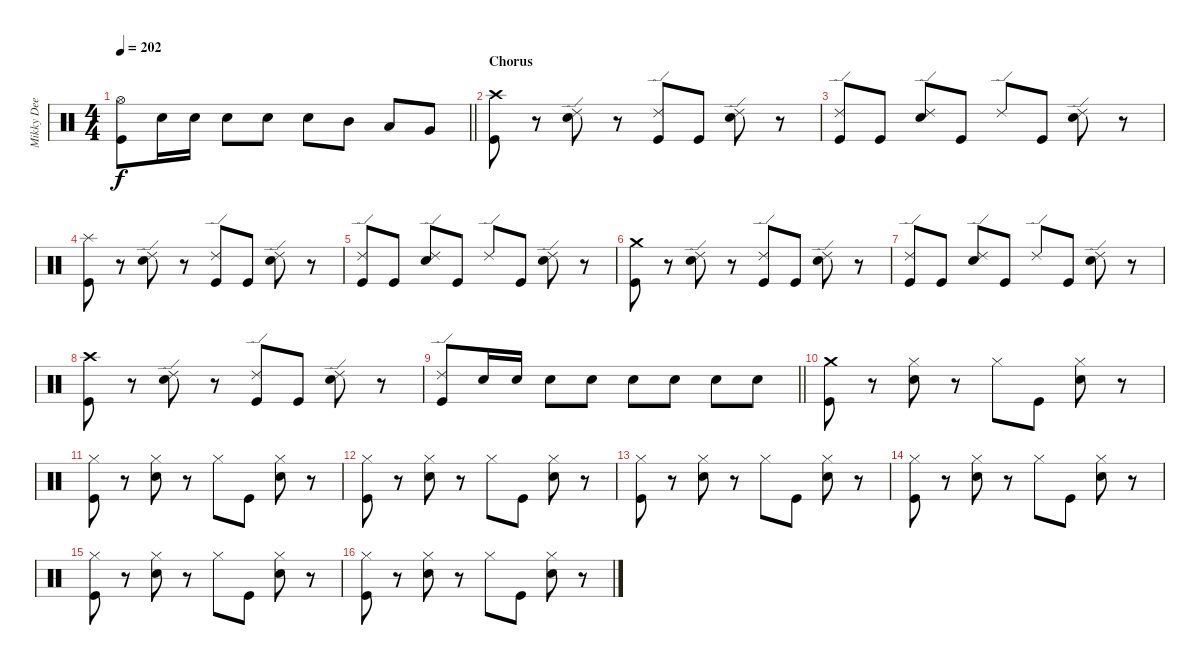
\track ("Mikky Dee" "Mikky Dee") {instrument percussion}
\staff {score}
\articulation defaults
\ts (4 4)
\tempo 202
\clef neutral
\barLineRight lightlight
\ks c
("Hi-Hat (open)" "Kick (hit)").8{dy f} "Electric Snare (hit)".16 "Electric Snare (hit)".16 "Electric Snare (hit)".8 "Electric Snare (hit)".8 "Electric Snare (hit)".8 "Mid Tom (hit)".8 "Low Tom (hit)".8 "Very Low Tom (hit)".8 |
\section ("" "Chorus")
("Crash high (hit)" "Kick (hit)").8 r.8 ("Ride (edge) 2" "Electric Snare (hit)").8 r.8 ("Ride (edge) 2" "Kick (hit)").8 "Kick (hit)".8 ("Ride (edge) 2" "Electric Snare (hit)").8 r.8 |
("Ride (edge) 2" "Kick (hit)").8 "Kick (hit)".8 ("Ride (edge) 2" "Electric Snare (hit)").8 "Kick (hit)".8 "Ride (edge) 2".8 "Kick (hit)".8 ("Ride (edge) 2" "Electric Snare (hit)").8 r.8 |
("Splash (hit)" "Kick (hit)").8 r.8 ("Ride (edge) 2" "Electric Snare (hit)").8 r.8 ("Ride (edge) 2" "Kick (hit)").8 "Kick (hit)".8 ("Ride (edge) 2" "Electric Snare (hit)").8 r.8 |
("Ride (edge) 2" "Kick (hit)").8 "Kick (hit)".8 ("Ride (edge) 2" "Electric Snare (hit)").8 "Kick (hit)".8 "Ride (edge) 2".8 "Kick (hit)".8 ("Ride (edge) 2" "Electric Snare (hit)").8 r.8 |
("Crash medium (hit)" "Kick (hit)").8 r.8 ("Ride (edge) 2" "Electric Snare (hit)").8 r.8 ("Ride (edge) 2" "Kick (hit)").8 "Kick (hit)".8 ("Ride (edge) 2" "Electric Snare (hit)").8 r.8 |
("Ride (edge) 2" "Kick (hit)").8 "Kick (hit)".8 ("Ride (edge) 2" "Electric Snare (hit)").8 "Kick (hit)".8 "Ride (edge) 2".8 "Kick (hit)".8 ("Ride (edge) 2" "Electric Snare (hit)").8 r.8 |
("Crash high (hit)" "Kick (hit)").8 r.8 ("Ride (edge) 2" "Electric Snare (hit)").8 r.8 ("Ride (edge) 2" "Kick (hit)").8 "Kick (hit)".8 ("Ride (edge) 2" "Electric Snare (hit)").8 r.8 |
\barLineRight lightlight
("Ride (edge) 2" "Kick (hit)").8 "Electric Snare (hit)".16 "Electric Snare (hit)".16 "Electric Snare (hit)".8 "Electric Snare (hit)".8 "Electric Snare (hit)".8 "Electric Snare (hit)".8 "Electric Snare (hit)".8 "Electric Snare (hit)".8 |
("Crash medium (hit)" "Kick (hit)").8 r.8 ("Hi-Hat (closed)" "Electric Snare (hit)").8 r.8 "Hi-Hat (closed)".8 "Kick (hit)".8 ("Hi-Hat (closed)" "Electric Snare (hit)").8 r.8 |
("Hi-Hat (closed)" "Kick (hit)").8 r.8 ("Hi-Hat (closed)" "Electric Snare (hit)").8 r.8 "Hi-Hat (closed)".8 "Kick (hit)".8 ("Hi-Hat (closed)" "Electric Snare (hit)").8 r.8 |
("Hi-Hat (closed)" "Kick (hit)").8 r.8 ("Hi-Hat (closed)" "Electric Snare (hit)").8 r.8 "Hi-Hat (closed)".8 "Kick (hit)".8 ("Hi-Hat (closed)" "Electric Snare (hit)").8 r.8 |
("Hi-Hat (closed)" "Kick (hit)").8 r.8 ("Hi-Hat (closed)" "Electric Snare (hit)").8 r.8 "Hi-Hat (closed)".8 "Kick (hit)".8 ("Hi-Hat (closed)" "Electric Snare (hit)").8 r.8 |
("Hi-Hat (closed)" "Kick (hit)").8 r.8 ("Hi-Hat (closed)" "Electric Snare (hit)").8 r.8 "Hi-Hat (closed)".8 "Kick (hit)".8 ("Hi-Hat (closed)" "Electric Snare (hit)").8 r.8 |
("Hi-Hat (closed)" "Kick (hit)").8 r.8 ("Hi-Hat (closed)" "Electric Snare (hit)").8 r.8 "Hi-Hat (closed)".8 "Kick (hit)".8 ("Hi-Hat (closed)" "Electric Snare (hit)").8 r.8 |
("Hi-Hat (closed)" "Kick (hit)").8 r.8 ("Hi-Hat (closed)" "Electric Snare (hit)").8 r.8 "Hi-Hat (closed)".8 "Kick (hit)".8 ("Hi-Hat (closed)" "Electric Snare (hit)").8 r.8
